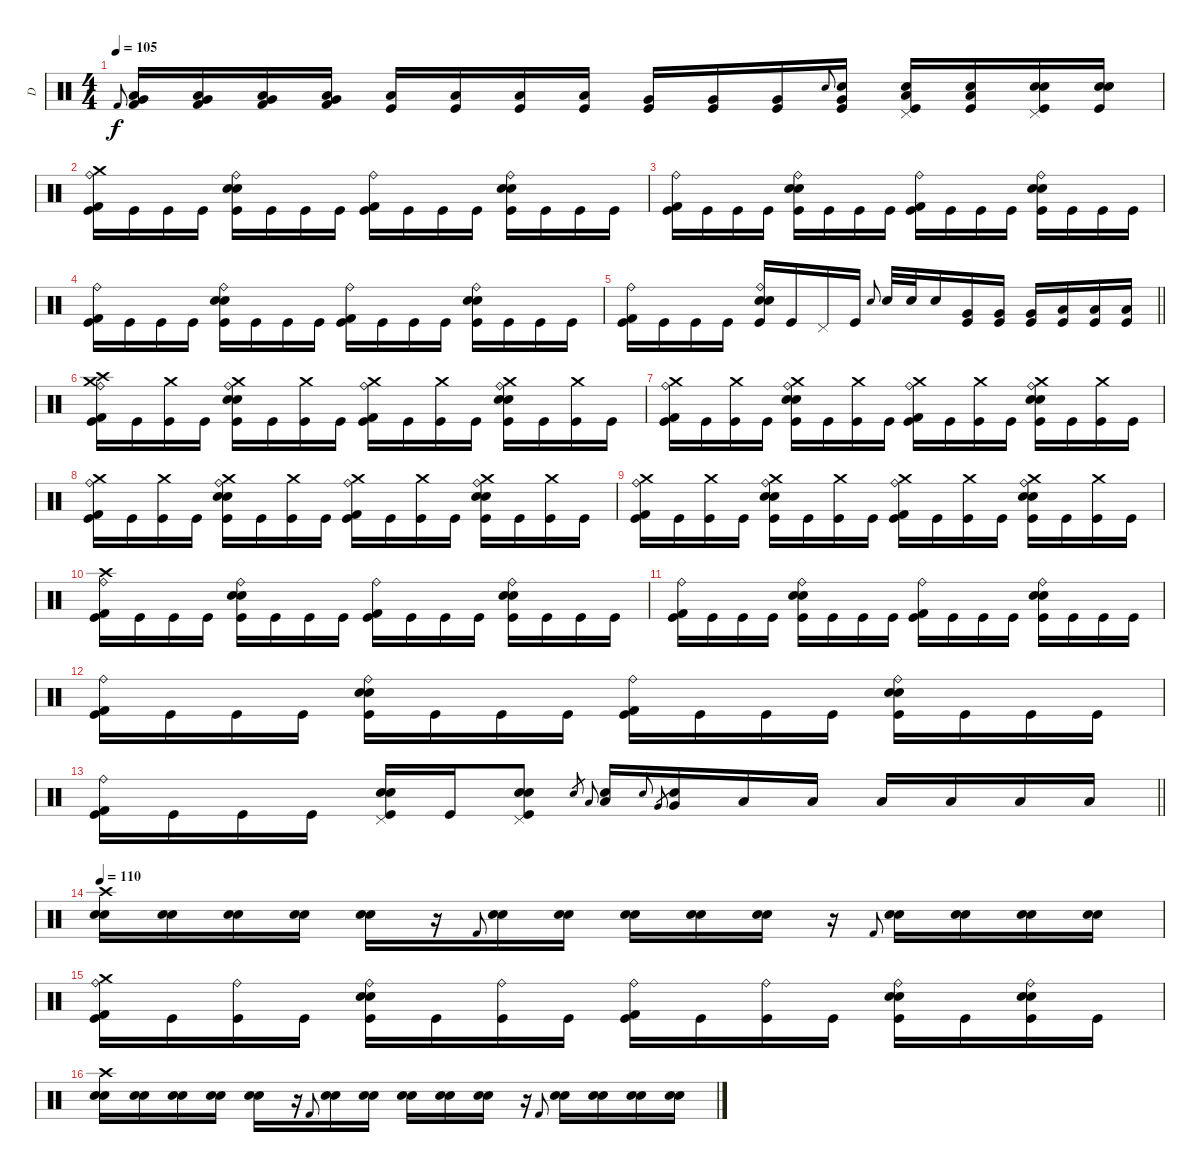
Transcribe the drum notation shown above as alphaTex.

\track ("D" "D") {instrument percussion}
\staff {score}
\articulation defaults
\ts (4 4)
\tempo 105
\clef neutral
\ks c "Kick (hit) 2".8{gr onbeat dy f}
("Low Floor Tom (hit)" "Very Low Tom (hit)" "Kick (hit) 2").16 ("Low Floor Tom (hit)" "Very Low Tom (hit)" "Kick (hit) 2").16 ("Low Floor Tom (hit)" "Very Low Tom (hit)" "Kick (hit) 2").16 ("Low Floor Tom (hit)" "Very Low Tom (hit)" "Kick (hit) 2").16 ("Low Floor Tom (hit)" "Kick (hit)").16 ("Low Floor Tom (hit)" "Kick (hit)").16 ("Low Floor Tom (hit)" "Kick (hit)").16 ("Low Floor Tom (hit)" "Kick (hit)").16 ("Very Low Tom (hit)" "Kick (hit)").16 ("Very Low Tom (hit)" "Kick (hit)").16 ("Very Low Tom (hit)" "Kick (hit)").16 "Electric Snare (hit)".8{gr onbeat} ("Electric Snare (hit)" "Very Low Tom (hit)" "Kick (hit)").16 ("Electric Snare (hit)" "Low Tom (hit)" "Kick (hit)" "Pedal Hi-Hat (hit)").16 ("Electric Snare (hit)" "Low Tom (hit)" "Kick (hit)").16 ("Electric Snare (hit)" "Electric Snare (hit)" "Kick (hit)" "Pedal Hi-Hat (hit)").16 ("Electric Snare (hit)" "Electric Snare (hit)" "Kick (hit)").16 |
("Crash medium (hit)" "Kick (hit) 2" "Kick (hit)" "Ride (bell)").16 "Kick (hit)".16 "Kick (hit)".16 "Kick (hit)".16 ("Electric Snare (hit)" "Electric Snare (hit)" "Kick (hit)" "Ride (bell)").16 "Kick (hit)".16 "Kick (hit)".16 "Kick (hit)".16 ("Kick (hit) 2" "Kick (hit)" "Ride (bell)").16 "Kick (hit)".16 "Kick (hit)".16 "Kick (hit)".16 ("Electric Snare (hit)" "Electric Snare (hit)" "Kick (hit)" "Ride (bell)").16 "Kick (hit)".16 "Kick (hit)".16 "Kick (hit)".16 |
("Kick (hit) 2" "Kick (hit)" "Ride (bell)").16 "Kick (hit)".16 "Kick (hit)".16 "Kick (hit)".16 ("Electric Snare (hit)" "Electric Snare (hit)" "Kick (hit)" "Ride (bell)").16 "Kick (hit)".16 "Kick (hit)".16 "Kick (hit)".16 ("Kick (hit) 2" "Kick (hit)" "Ride (bell)").16 "Kick (hit)".16 "Kick (hit)".16 "Kick (hit)".16 ("Electric Snare (hit)" "Electric Snare (hit)" "Kick (hit)" "Ride (bell)").16 "Kick (hit)".16 "Kick (hit)".16 "Kick (hit)".16 |
("Kick (hit) 2" "Kick (hit)" "Ride (bell)").16 "Kick (hit)".16 "Kick (hit)".16 "Kick (hit)".16 ("Electric Snare (hit)" "Electric Snare (hit)" "Kick (hit)" "Ride (bell)").16 "Kick (hit)".16 "Kick (hit)".16 "Kick (hit)".16 ("Kick (hit) 2" "Kick (hit)" "Ride (bell)").16 "Kick (hit)".16 "Kick (hit)".16 "Kick (hit)".16 ("Electric Snare (hit)" "Electric Snare (hit)" "Kick (hit)" "Ride (bell)").16 "Kick (hit)".16 "Kick (hit)".16 "Kick (hit)".16 |
\barLineRight lightlight
("Kick (hit) 2" "Kick (hit)" "Ride (bell)").16 "Kick (hit)".16 "Kick (hit)".16 "Kick (hit)".16 ("Electric Snare (hit)" "Electric Snare (hit)" "Kick (hit)" "Ride (bell)").16 "Kick (hit)".16 "Pedal Hi-Hat (hit)".16 "Kick (hit)".16 "Electric Snare (hit)".8{gr onbeat} "Electric Snare (hit)".32 "Electric Snare (hit)".32 "Electric Snare (hit)".16 ("Very Low Tom (hit)" "Kick (hit)").16 ("Very Low Tom (hit)" "Kick (hit)").16 ("Very Low Tom (hit)" "Kick (hit)").16 ("Low Tom (hit)" "Kick (hit)").16 ("Low Tom (hit)" "Kick (hit)").16 ("Low Tom (hit)" "Kick (hit)").16 |
("Crash medium (hit)" "Crash high (hit)" "Kick (hit) 2" "Kick (hit)" "Ride (bell)").16 "Kick (hit)".16 ("Crash medium (hit)" "Kick (hit)").16 "Kick (hit)".16 ("Crash medium (hit)" "Electric Snare (hit)" "Electric Snare (hit)" "Kick (hit)" "Ride (bell)").16 "Kick (hit)".16 ("Crash medium (hit)" "Kick (hit)").16 "Kick (hit)".16 ("Crash medium (hit)" "Kick (hit) 2" "Kick (hit)" "Ride (bell)").16 "Kick (hit)".16 ("Crash medium (hit)" "Kick (hit)").16 "Kick (hit)".16 ("Crash medium (hit)" "Electric Snare (hit)" "Electric Snare (hit)" "Kick (hit)" "Ride (bell)").16 "Kick (hit)".16 ("Crash medium (hit)" "Kick (hit)").16 "Kick (hit)".16 |
("Crash medium (hit)" "Kick (hit) 2" "Kick (hit)" "Ride (bell)").16 "Kick (hit)".16 ("Crash medium (hit)" "Kick (hit)").16 "Kick (hit)".16 ("Crash medium (hit)" "Electric Snare (hit)" "Electric Snare (hit)" "Kick (hit)" "Ride (bell)").16 "Kick (hit)".16 ("Crash medium (hit)" "Kick (hit)").16 "Kick (hit)".16 ("Crash medium (hit)" "Kick (hit) 2" "Kick (hit)" "Ride (bell)").16 "Kick (hit)".16 ("Crash medium (hit)" "Kick (hit)").16 "Kick (hit)".16 ("Crash medium (hit)" "Electric Snare (hit)" "Electric Snare (hit)" "Kick (hit)" "Ride (bell)").16 "Kick (hit)".16 ("Crash medium (hit)" "Kick (hit)").16 "Kick (hit)".16 |
("Crash medium (hit)" "Kick (hit) 2" "Kick (hit)" "Ride (bell)").16 "Kick (hit)".16 ("Crash medium (hit)" "Kick (hit)").16 "Kick (hit)".16 ("Crash medium (hit)" "Electric Snare (hit)" "Electric Snare (hit)" "Kick (hit)" "Ride (bell)").16 "Kick (hit)".16 ("Crash medium (hit)" "Kick (hit)").16 "Kick (hit)".16 ("Crash medium (hit)" "Kick (hit) 2" "Kick (hit)" "Ride (bell)").16 "Kick (hit)".16 ("Crash medium (hit)" "Kick (hit)").16 "Kick (hit)".16 ("Crash medium (hit)" "Electric Snare (hit)" "Electric Snare (hit)" "Kick (hit)" "Ride (bell)").16 "Kick (hit)".16 ("Crash medium (hit)" "Kick (hit)").16 "Kick (hit)".16 |
("Crash medium (hit)" "Kick (hit) 2" "Kick (hit)" "Ride (bell)").16 "Kick (hit)".16 ("Crash medium (hit)" "Kick (hit)").16 "Kick (hit)".16 ("Crash medium (hit)" "Electric Snare (hit)" "Electric Snare (hit)" "Kick (hit)" "Ride (bell)").16 "Kick (hit)".16 ("Crash medium (hit)" "Kick (hit)").16 "Kick (hit)".16 ("Crash medium (hit)" "Kick (hit) 2" "Kick (hit)" "Ride (bell)").16 "Kick (hit)".16 ("Crash medium (hit)" "Kick (hit)").16 "Kick (hit)".16 ("Crash medium (hit)" "Electric Snare (hit)" "Electric Snare (hit)" "Kick (hit)" "Ride (bell)").16 "Kick (hit)".16 ("Crash medium (hit)" "Kick (hit)").16 "Kick (hit)".16 |
("Crash high (hit)" "Kick (hit) 2" "Kick (hit)" "Ride (bell)").16 "Kick (hit)".16 "Kick (hit)".16 "Kick (hit)".16 ("Electric Snare (hit)" "Electric Snare (hit)" "Kick (hit)" "Ride (bell)").16 "Kick (hit)".16 "Kick (hit)".16 "Kick (hit)".16 ("Kick (hit) 2" "Kick (hit)" "Ride (bell)").16 "Kick (hit)".16 "Kick (hit)".16 "Kick (hit)".16 ("Electric Snare (hit)" "Electric Snare (hit)" "Kick (hit)" "Ride (bell)").16 "Kick (hit)".16 "Kick (hit)".16 "Kick (hit)".16 |
("Kick (hit) 2" "Kick (hit)" "Ride (bell)").16 "Kick (hit)".16 "Kick (hit)".16 "Kick (hit)".16 ("Electric Snare (hit)" "Electric Snare (hit)" "Kick (hit)" "Ride (bell)").16 "Kick (hit)".16 "Kick (hit)".16 "Kick (hit)".16 ("Kick (hit) 2" "Kick (hit)" "Ride (bell)").16 "Kick (hit)".16 "Kick (hit)".16 "Kick (hit)".16 ("Electric Snare (hit)" "Electric Snare (hit)" "Kick (hit)" "Ride (bell)").16 "Kick (hit)".16 "Kick (hit)".16 "Kick (hit)".16 |
("Kick (hit) 2" "Kick (hit)" "Ride (bell)").16 "Kick (hit)".16 "Kick (hit)".16 "Kick (hit)".16 ("Electric Snare (hit)" "Electric Snare (hit)" "Kick (hit)" "Ride (bell)").16 "Kick (hit)".16 "Kick (hit)".16 "Kick (hit)".16 ("Kick (hit) 2" "Kick (hit)" "Ride (bell)").16 "Kick (hit)".16 "Kick (hit)".16 "Kick (hit)".16 ("Electric Snare (hit)" "Electric Snare (hit)" "Kick (hit)" "Ride (bell)").16 "Kick (hit)".16 "Kick (hit)".16 "Kick (hit)".16 |
\barLineRight lightlight
("Kick (hit) 2" "Kick (hit)" "Ride (bell)").16 "Kick (hit)".16 "Kick (hit)".16 "Kick (hit)".16 ("Electric Snare (hit)" "Electric Snare (hit)" "Kick (hit)" "Pedal Hi-Hat (hit)").16 "Kick (hit)".16 ("Electric Snare (hit)" "Electric Snare (hit)" "Kick (hit)" "Pedal Hi-Hat (hit)").8 "Electric Snare (hit)".16{gr} "Low Tom (hit)".16{gr onbeat} ("Electric Snare (hit)" "Low Tom (hit)").16 "Electric Snare (hit)".16{gr onbeat} "Very Low Tom (hit)".16{gr} ("Electric Snare (hit)" "Very Low Tom (hit)").16 "Low Floor Tom (hit)".16 "Low Tom (hit)".16 "Low Tom (hit)".16 "Low Tom (hit)".16 "Low Tom (hit)".16 "Low Tom (hit)".16 |
\tempo 110
("Crash high (hit)" "Electric Snare (hit)" "Electric Snare (hit)").16 ("Electric Snare (hit)" "Electric Snare (hit)").16 ("Electric Snare (hit)" "Electric Snare (hit)").16 ("Electric Snare (hit)" "Electric Snare (hit)").16 ("Electric Snare (hit)" "Electric Snare (hit)").16 r.16 "Kick (hit) 2".8{gr onbeat} ("Electric Snare (hit)" "Electric Snare (hit)").16 ("Electric Snare (hit)" "Electric Snare (hit)").16 ("Electric Snare (hit)" "Electric Snare (hit)").16 ("Electric Snare (hit)" "Electric Snare (hit)").16 ("Electric Snare (hit)" "Electric Snare (hit)").16 r.16 "Kick (hit) 2".8{gr onbeat} ("Electric Snare (hit)" "Electric Snare (hit)").16 ("Electric Snare (hit)" "Electric Snare (hit)").16 ("Electric Snare (hit)" "Electric Snare (hit)").16 ("Electric Snare (hit)" "Electric Snare (hit)").16 |
("Crash medium (hit)" "Kick (hit) 2" "Kick (hit)" "Ride (bell)").16 "Kick (hit)".16 ("Kick (hit)" "Ride (bell)").16 "Kick (hit)".16 ("Electric Snare (hit)" "Electric Snare (hit)" "Kick (hit)" "Ride (bell)").16 "Kick (hit)".16 ("Kick (hit)" "Ride (bell)").16 "Kick (hit)".16 ("Kick (hit) 2" "Kick (hit)" "Ride (bell)").16 "Kick (hit)".16 ("Kick (hit)" "Ride (bell)").16 "Kick (hit)".16 ("Electric Snare (hit)" "Electric Snare (hit)" "Kick (hit)" "Ride (bell)").16 "Kick (hit)".16 ("Electric Snare (hit)" "Electric Snare (hit)" "Kick (hit)" "Ride (bell)").16 "Kick (hit)".16 |
("Crash high (hit)" "Electric Snare (hit)" "Electric Snare (hit)").16 ("Electric Snare (hit)" "Electric Snare (hit)").16 ("Electric Snare (hit)" "Electric Snare (hit)").16 ("Electric Snare (hit)" "Electric Snare (hit)").16 ("Electric Snare (hit)" "Electric Snare (hit)").16 r.16 "Kick (hit) 2".8{gr onbeat} ("Electric Snare (hit)" "Electric Snare (hit)").16 ("Electric Snare (hit)" "Electric Snare (hit)").16 ("Electric Snare (hit)" "Electric Snare (hit)").16 ("Electric Snare (hit)" "Electric Snare (hit)").16 ("Electric Snare (hit)" "Electric Snare (hit)").16 r.16 "Kick (hit) 2".8{gr onbeat} ("Electric Snare (hit)" "Electric Snare (hit)").16 ("Electric Snare (hit)" "Electric Snare (hit)").16 ("Electric Snare (hit)" "Electric Snare (hit)").16 ("Electric Snare (hit)" "Electric Snare (hit)").16
